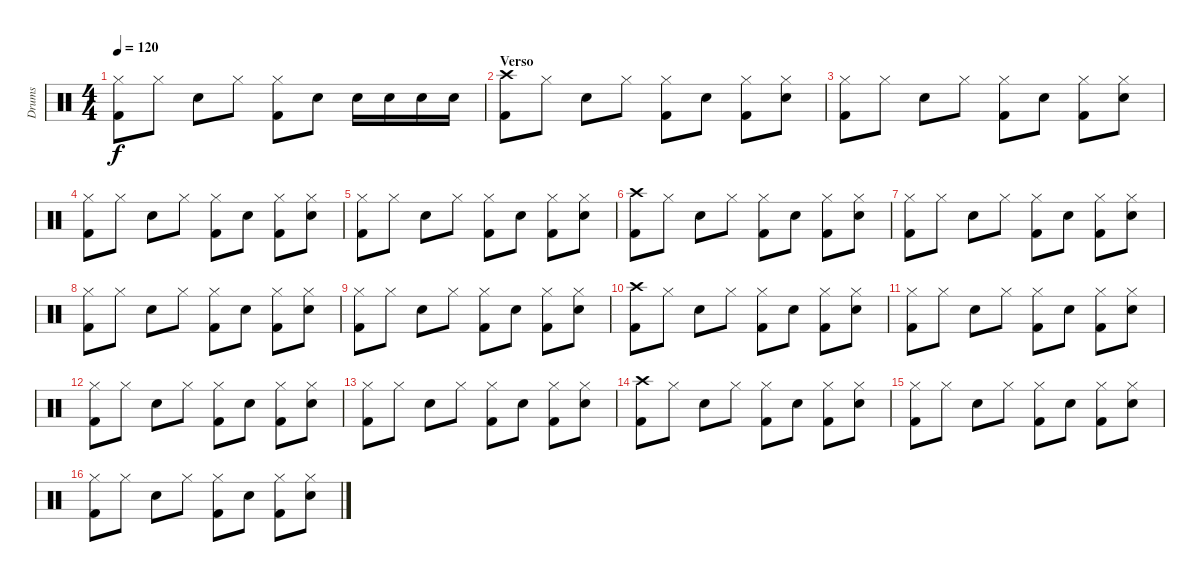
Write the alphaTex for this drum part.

\track ("Drums" "Drums") {instrument percussion}
\staff {score}
\articulation defaults
\ts (4 4)
\tempo 120
\clef neutral
\ks c
("Kick (hit) 2" "Hi-Hat (closed)").8{dy f} "Hi-Hat (closed)".8 "Snare (hit) 2".8 "Hi-Hat (closed)".8 ("Kick (hit) 2" "Hi-Hat (closed)").8 "Snare (hit) 2".8 "Snare (hit) 2".16 "Snare (hit) 2".16 "Snare (hit) 2".16 "Snare (hit) 2".16 |
\section ("" "Verso")
("Kick (hit) 2" "Crash high (hit)").8 "Hi-Hat (closed)".8 "Snare (hit) 2".8 "Hi-Hat (closed)".8 ("Kick (hit) 2" "Hi-Hat (closed)").8 "Snare (hit) 2".8 ("Kick (hit) 2" "Hi-Hat (closed)").8 ("Snare (hit) 2" "Hi-Hat (closed)").8 |
("Kick (hit) 2" "Hi-Hat (closed)").8 "Hi-Hat (closed)".8 "Snare (hit) 2".8 "Hi-Hat (closed)".8 ("Kick (hit) 2" "Hi-Hat (closed)").8 "Snare (hit) 2".8 ("Kick (hit) 2" "Hi-Hat (closed)").8 ("Snare (hit) 2" "Hi-Hat (closed)").8 |
("Kick (hit) 2" "Hi-Hat (closed)").8 "Hi-Hat (closed)".8 "Snare (hit) 2".8 "Hi-Hat (closed)".8 ("Kick (hit) 2" "Hi-Hat (closed)").8 "Snare (hit) 2".8 ("Kick (hit) 2" "Hi-Hat (closed)").8 ("Snare (hit) 2" "Hi-Hat (closed)").8 |
("Kick (hit) 2" "Hi-Hat (closed)").8 "Hi-Hat (closed)".8 "Snare (hit) 2".8 "Hi-Hat (closed)".8 ("Kick (hit) 2" "Hi-Hat (closed)").8 "Snare (hit) 2".8 ("Kick (hit) 2" "Hi-Hat (closed)").8 ("Snare (hit) 2" "Hi-Hat (closed)").8 |
("Kick (hit) 2" "Crash high (hit)").8 "Hi-Hat (closed)".8 "Snare (hit) 2".8 "Hi-Hat (closed)".8 ("Kick (hit) 2" "Hi-Hat (closed)").8 "Snare (hit) 2".8 ("Kick (hit) 2" "Hi-Hat (closed)").8 ("Snare (hit) 2" "Hi-Hat (closed)").8 |
("Kick (hit) 2" "Hi-Hat (closed)").8 "Hi-Hat (closed)".8 "Snare (hit) 2".8 "Hi-Hat (closed)".8 ("Kick (hit) 2" "Hi-Hat (closed)").8 "Snare (hit) 2".8 ("Kick (hit) 2" "Hi-Hat (closed)").8 ("Snare (hit) 2" "Hi-Hat (closed)").8 |
("Kick (hit) 2" "Hi-Hat (closed)").8 "Hi-Hat (closed)".8 "Snare (hit) 2".8 "Hi-Hat (closed)".8 ("Kick (hit) 2" "Hi-Hat (closed)").8 "Snare (hit) 2".8 ("Kick (hit) 2" "Hi-Hat (closed)").8 ("Snare (hit) 2" "Hi-Hat (closed)").8 |
("Kick (hit) 2" "Hi-Hat (closed)").8 "Hi-Hat (closed)".8 "Snare (hit) 2".8 "Hi-Hat (closed)".8 ("Kick (hit) 2" "Hi-Hat (closed)").8 "Snare (hit) 2".8 ("Kick (hit) 2" "Hi-Hat (closed)").8 ("Snare (hit) 2" "Hi-Hat (closed)").8 |
("Kick (hit) 2" "Crash high (hit)").8 "Hi-Hat (closed)".8 "Snare (hit) 2".8 "Hi-Hat (closed)".8 ("Kick (hit) 2" "Hi-Hat (closed)").8 "Snare (hit) 2".8 ("Kick (hit) 2" "Hi-Hat (closed)").8 ("Snare (hit) 2" "Hi-Hat (closed)").8 |
("Kick (hit) 2" "Hi-Hat (closed)").8 "Hi-Hat (closed)".8 "Snare (hit) 2".8 "Hi-Hat (closed)".8 ("Kick (hit) 2" "Hi-Hat (closed)").8 "Snare (hit) 2".8 ("Kick (hit) 2" "Hi-Hat (closed)").8 ("Snare (hit) 2" "Hi-Hat (closed)").8 |
("Kick (hit) 2" "Hi-Hat (closed)").8 "Hi-Hat (closed)".8 "Snare (hit) 2".8 "Hi-Hat (closed)".8 ("Kick (hit) 2" "Hi-Hat (closed)").8 "Snare (hit) 2".8 ("Kick (hit) 2" "Hi-Hat (closed)").8 ("Snare (hit) 2" "Hi-Hat (closed)").8 |
("Kick (hit) 2" "Hi-Hat (closed)").8 "Hi-Hat (closed)".8 "Snare (hit) 2".8 "Hi-Hat (closed)".8 ("Kick (hit) 2" "Hi-Hat (closed)").8 "Snare (hit) 2".8 ("Kick (hit) 2" "Hi-Hat (closed)").8 ("Snare (hit) 2" "Hi-Hat (closed)").8 |
("Kick (hit) 2" "Crash high (hit)").8 "Hi-Hat (closed)".8 "Snare (hit) 2".8 "Hi-Hat (closed)".8 ("Kick (hit) 2" "Hi-Hat (closed)").8 "Snare (hit) 2".8 ("Kick (hit) 2" "Hi-Hat (closed)").8 ("Snare (hit) 2" "Hi-Hat (closed)").8 |
("Kick (hit) 2" "Hi-Hat (closed)").8 "Hi-Hat (closed)".8 "Snare (hit) 2".8 "Hi-Hat (closed)".8 ("Kick (hit) 2" "Hi-Hat (closed)").8 "Snare (hit) 2".8 ("Kick (hit) 2" "Hi-Hat (closed)").8 ("Snare (hit) 2" "Hi-Hat (closed)").8 |
("Kick (hit) 2" "Hi-Hat (closed)").8 "Hi-Hat (closed)".8 "Snare (hit) 2".8 "Hi-Hat (closed)".8 ("Kick (hit) 2" "Hi-Hat (closed)").8 "Snare (hit) 2".8 ("Kick (hit) 2" "Hi-Hat (closed)").8 ("Snare (hit) 2" "Hi-Hat (closed)").8
